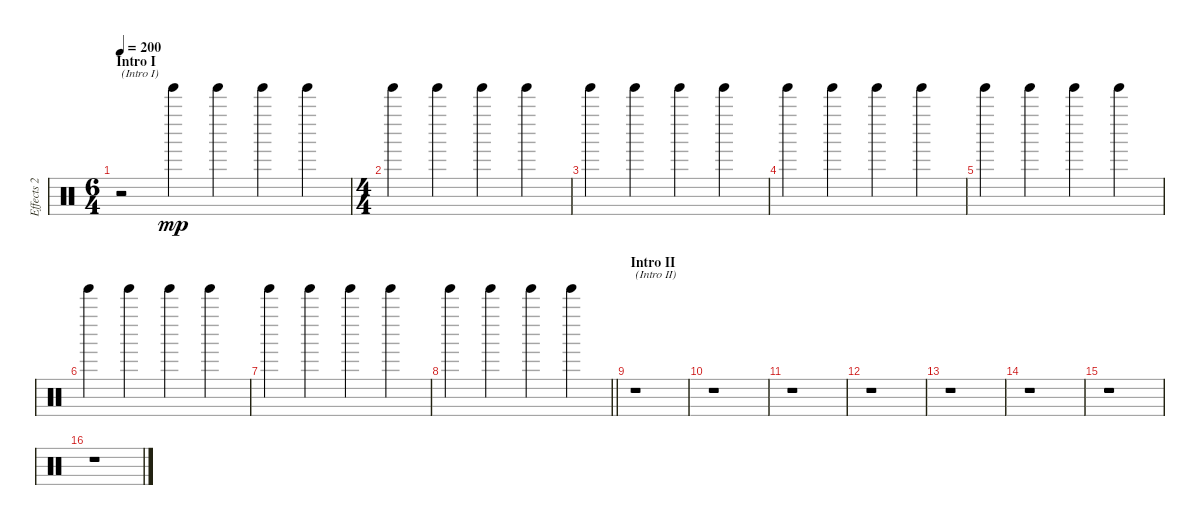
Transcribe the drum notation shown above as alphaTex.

\track ("Effects 2" "Effects 2") {instrument percussion}
\staff {score}
\articulation defaults
\ts (6 4)
\section ("" "Intro I")
\tempo 200
\clef neutral
\ks c
r.2{txt "(Intro I)" dy mp} "Tinkle Bell (hit)".4 "Tinkle Bell (hit)".4 "Tinkle Bell (hit)".4 "Tinkle Bell (hit)".4 |
\ts (4 4)
"Tinkle Bell (hit)".4 "Tinkle Bell (hit)".4 "Tinkle Bell (hit)".4 "Tinkle Bell (hit)".4 |
"Tinkle Bell (hit)".4 "Tinkle Bell (hit)".4 "Tinkle Bell (hit)".4 "Tinkle Bell (hit)".4 |
"Tinkle Bell (hit)".4 "Tinkle Bell (hit)".4 "Tinkle Bell (hit)".4 "Tinkle Bell (hit)".4 |
"Tinkle Bell (hit)".4 "Tinkle Bell (hit)".4 "Tinkle Bell (hit)".4 "Tinkle Bell (hit)".4 |
"Tinkle Bell (hit)".4 "Tinkle Bell (hit)".4 "Tinkle Bell (hit)".4 "Tinkle Bell (hit)".4 |
"Tinkle Bell (hit)".4 "Tinkle Bell (hit)".4 "Tinkle Bell (hit)".4 "Tinkle Bell (hit)".4 |
\barLineRight lightlight "Tinkle Bell (hit)".4 "Tinkle Bell (hit)".4 "Tinkle Bell (hit)".4 "Tinkle Bell (hit)".4
|
\section ("" "Intro II")
r.1{txt "(Intro II)"} |
r.1 |
r.1 |
r.1 |
r.1 |
r.1 |
r.1 |
r.1
